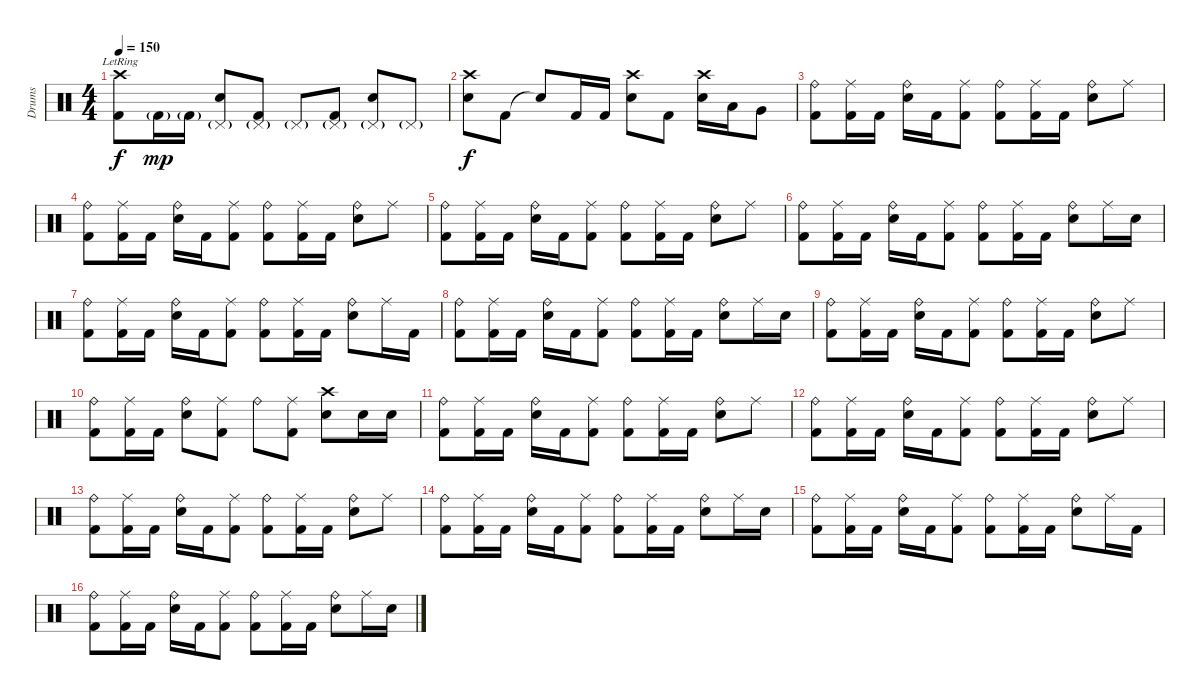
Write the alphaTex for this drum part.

\track ("Drums" "Drums") {instrument percussion}
\staff {score}
\articulation defaults
\ts (4 4)
\tempo 150
\clef neutral
\ks c
("Crash high (hit)"{lr} "Kick (hit) 2").8{dy f} "Kick (hit) 2"{g}.16{dy mp} "Kick (hit) 2"{g}.16 ("Pedal Hi-Hat (hit)"{g} "Electric Snare (hit)").8 ("Pedal Hi-Hat (hit)"{g} "Kick (hit) 2").8 "Pedal Hi-Hat (hit)"{g}.8 ("Pedal Hi-Hat (hit)"{g} "Kick (hit) 2").8 ("Pedal Hi-Hat (hit)"{g} "Electric Snare (hit)").8 "Pedal Hi-Hat (hit)"{g}.8 |
("Crash high (hit)" "Electric Snare (hit)").8{dy f} "Kick (hit) 2".8 "Snare (hit)"{t}.8 "Kick (hit) 2".16 "Kick (hit) 2".16 ("Crash high (hit)" "Electric Snare (hit)").8 "Kick (hit) 2".8 ("Crash high (hit)" "Electric Snare (hit)").16 "Low Tom (hit)".16 "Very Low Tom (hit)".8 |
("Ride (bell)" "Kick (hit) 2").8 ("Ride (middle)" "Kick (hit) 2").16 "Kick (hit) 2".16 ("Ride (bell)" "Electric Snare (hit)").16 "Kick (hit) 2".16 ("Ride (middle)" "Kick (hit) 2").8 ("Ride (bell)" "Kick (hit) 2").8 ("Ride (middle)" "Kick (hit) 2").16 "Kick (hit) 2".16 ("Ride (bell)" "Electric Snare (hit)").8 "Ride (middle)".8 |
("Ride (bell)" "Kick (hit) 2").8 ("Ride (middle)" "Kick (hit) 2").16 "Kick (hit) 2".16 ("Ride (bell)" "Electric Snare (hit)").16 "Kick (hit) 2".16 ("Ride (middle)" "Kick (hit) 2").8 ("Ride (bell)" "Kick (hit) 2").8 ("Ride (middle)" "Kick (hit) 2").16 "Kick (hit) 2".16 ("Ride (bell)" "Electric Snare (hit)").8 "Ride (middle)".8 |
("Ride (bell)" "Kick (hit) 2").8 ("Ride (middle)" "Kick (hit) 2").16 "Kick (hit) 2".16 ("Ride (bell)" "Electric Snare (hit)").16 "Kick (hit) 2".16 ("Ride (middle)" "Kick (hit) 2").8 ("Ride (bell)" "Kick (hit) 2").8 ("Ride (middle)" "Kick (hit) 2").16 "Kick (hit) 2".16 ("Ride (bell)" "Electric Snare (hit)").8 "Ride (middle)".8 |
("Ride (bell)" "Kick (hit) 2").8 ("Ride (middle)" "Kick (hit) 2").16 "Kick (hit) 2".16 ("Ride (bell)" "Electric Snare (hit)").16 "Kick (hit) 2".16 ("Ride (middle)" "Kick (hit) 2").8 ("Ride (bell)" "Kick (hit) 2").8 ("Ride (middle)" "Kick (hit) 2").16 "Kick (hit) 2".16 ("Ride (bell)" "Electric Snare (hit)").8 "Ride (middle)".16 "Electric Snare (hit)".16 |
("Ride (bell)" "Kick (hit) 2").8 ("Ride (middle)" "Kick (hit) 2").16 "Kick (hit) 2".16 ("Ride (bell)" "Electric Snare (hit)").16 "Kick (hit) 2".16 ("Ride (middle)" "Kick (hit) 2").8 ("Ride (bell)" "Kick (hit) 2").8 ("Ride (middle)" "Kick (hit) 2").16 "Kick (hit) 2".16 ("Ride (bell)" "Electric Snare (hit)").8 "Ride (middle)".16 "Kick (hit) 2".16 |
("Ride (bell)" "Kick (hit) 2").8 ("Ride (middle)" "Kick (hit) 2").16 "Kick (hit) 2".16 ("Ride (bell)" "Electric Snare (hit)").16 "Kick (hit) 2".16 ("Ride (middle)" "Kick (hit) 2").8 ("Ride (bell)" "Kick (hit) 2").8 ("Ride (middle)" "Kick (hit) 2").16 "Kick (hit) 2".16 ("Ride (bell)" "Electric Snare (hit)").8 "Ride (middle)".16 "Electric Snare (hit)".16 |
("Ride (bell)" "Kick (hit) 2").8 ("Ride (middle)" "Kick (hit) 2").16 "Kick (hit) 2".16 ("Ride (bell)" "Electric Snare (hit)").16 "Kick (hit) 2".16 ("Ride (middle)" "Kick (hit) 2").8 ("Ride (bell)" "Kick (hit) 2").8 ("Ride (middle)" "Kick (hit) 2").16 "Kick (hit) 2".16 ("Ride (bell)" "Electric Snare (hit)").8 "Ride (middle)".8 |
("Ride (bell)" "Kick (hit) 2").8 ("Ride (middle)" "Kick (hit) 2").16 "Kick (hit) 2".16 ("Ride (bell)" "Electric Snare (hit)").8 ("Ride (middle)" "Kick (hit) 2").8 "Ride (bell)".8 ("Ride (middle)" "Kick (hit) 2").8 ("Crash high (hit)" "Electric Snare (hit)").8 "Electric Snare (hit)".16 "Electric Snare (hit)".16 |
("Ride (bell)" "Kick (hit) 2").8 ("Ride (middle)" "Kick (hit) 2").16 "Kick (hit) 2".16 ("Ride (bell)" "Electric Snare (hit)").16 "Kick (hit) 2".16 ("Ride (middle)" "Kick (hit) 2").8 ("Ride (bell)" "Kick (hit) 2").8 ("Ride (middle)" "Kick (hit) 2").16 "Kick (hit) 2".16 ("Ride (bell)" "Electric Snare (hit)").8 "Ride (middle)".8 |
("Ride (bell)" "Kick (hit) 2").8 ("Ride (middle)" "Kick (hit) 2").16 "Kick (hit) 2".16 ("Ride (bell)" "Electric Snare (hit)").16 "Kick (hit) 2".16 ("Ride (middle)" "Kick (hit) 2").8 ("Ride (bell)" "Kick (hit) 2").8 ("Ride (middle)" "Kick (hit) 2").16 "Kick (hit) 2".16 ("Ride (bell)" "Electric Snare (hit)").8 "Ride (middle)".8 |
("Ride (bell)" "Kick (hit) 2").8 ("Ride (middle)" "Kick (hit) 2").16 "Kick (hit) 2".16 ("Ride (bell)" "Electric Snare (hit)").16 "Kick (hit) 2".16 ("Ride (middle)" "Kick (hit) 2").8 ("Ride (bell)" "Kick (hit) 2").8 ("Ride (middle)" "Kick (hit) 2").16 "Kick (hit) 2".16 ("Ride (bell)" "Electric Snare (hit)").8 "Ride (middle)".8 |
("Ride (bell)" "Kick (hit) 2").8 ("Ride (middle)" "Kick (hit) 2").16 "Kick (hit) 2".16 ("Ride (bell)" "Electric Snare (hit)").16 "Kick (hit) 2".16 ("Ride (middle)" "Kick (hit) 2").8 ("Ride (bell)" "Kick (hit) 2").8 ("Ride (middle)" "Kick (hit) 2").16 "Kick (hit) 2".16 ("Ride (bell)" "Electric Snare (hit)").8 "Ride (middle)".16 "Electric Snare (hit)".16 |
("Ride (bell)" "Kick (hit) 2").8 ("Ride (middle)" "Kick (hit) 2").16 "Kick (hit) 2".16 ("Ride (bell)" "Electric Snare (hit)").16 "Kick (hit) 2".16 ("Ride (middle)" "Kick (hit) 2").8 ("Ride (bell)" "Kick (hit) 2").8 ("Ride (middle)" "Kick (hit) 2").16 "Kick (hit) 2".16 ("Ride (bell)" "Electric Snare (hit)").8 "Ride (middle)".16 "Kick (hit) 2".16 |
("Ride (bell)" "Kick (hit) 2").8 ("Ride (middle)" "Kick (hit) 2").16 "Kick (hit) 2".16 ("Ride (bell)" "Electric Snare (hit)").16 "Kick (hit) 2".16 ("Ride (middle)" "Kick (hit) 2").8 ("Ride (bell)" "Kick (hit) 2").8 ("Ride (middle)" "Kick (hit) 2").16 "Kick (hit) 2".16 ("Ride (bell)" "Electric Snare (hit)").8 "Ride (middle)".16 "Electric Snare (hit)".16
